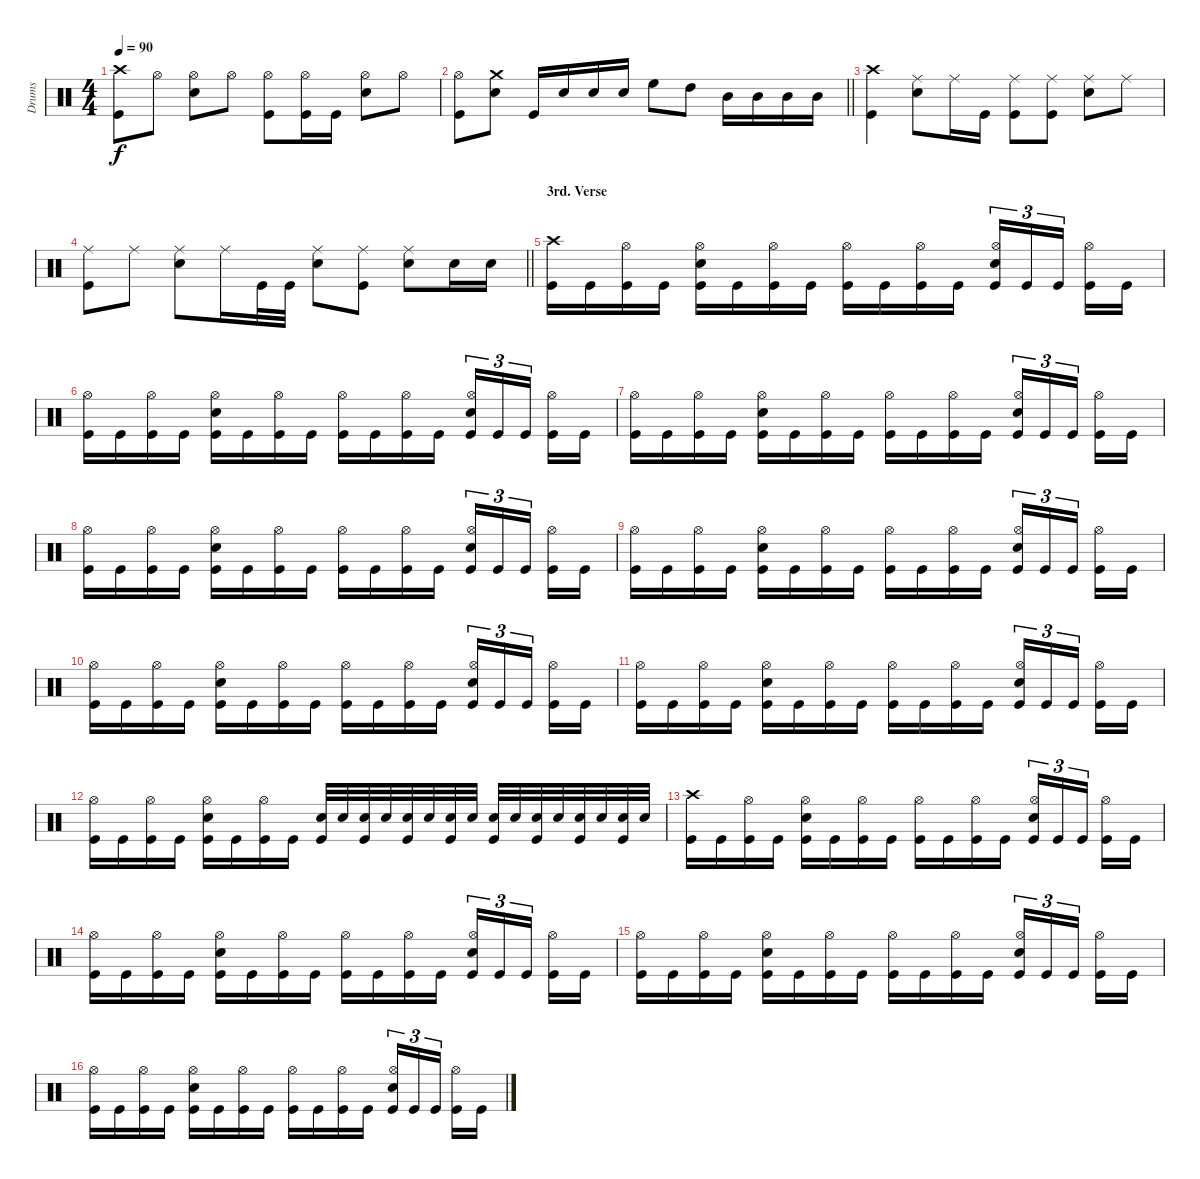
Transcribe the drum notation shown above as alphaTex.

\track ("Drums" "Drums") {instrument percussion}
\staff {score}
\articulation defaults
\ts (4 4)
\tempo 90
\clef neutral
\ks c
("Crash high (hit)" "Kick (hit)").8{dy f} "Hi-Hat (open)".8 ("Hi-Hat (open)" "Electric Snare (hit)").8 "Hi-Hat (open)".8 ("Hi-Hat (open)" "Kick (hit)").8 ("Hi-Hat (open)" "Kick (hit)").16 "Kick (hit)".16 ("Hi-Hat (open)" "Electric Snare (hit)").8 "Hi-Hat (open)".8 |
\barLineRight lightlight
("Hi-Hat (open)" "Kick (hit)").8 ("Crash medium (hit)" "Electric Snare (hit)").8 "Kick (hit)".16 "Electric Snare (hit)".16 "Electric Snare (hit)".16 "Electric Snare (hit)".16 "High Floor Tom (hit)".8 "High Tom (hit)".8 "Mid Tom (hit)".16 "Mid Tom (hit)".16 "Mid Tom (hit)".16 "Mid Tom (hit)".16 |
("Crash high (hit)" "Kick (hit)").4 ("Ride (middle)" "Electric Snare (hit)").8 "Ride (middle)".16 "Kick (hit)".16 ("Ride (middle)" "Kick (hit)").8 ("Ride (middle)" "Kick (hit)").8 ("Ride (middle)" "Electric Snare (hit)").8 "Ride (middle)".8 |
\barLineRight lightlight
("Ride (middle)" "Kick (hit)").8 "Ride (middle)".8 ("Ride (middle)" "Electric Snare (hit)").8 "Ride (middle)".16 "Kick (hit)".32 "Kick (hit)".32 ("Ride (middle)" "Electric Snare (hit)").8 ("Ride (middle)" "Kick (hit)").8 ("Ride (middle)" "Electric Snare (hit)").8 "Electric Snare (hit)".16 "Electric Snare (hit)".16 |
\section ("" "3rd. Verse")
("Crash high (hit)" "Kick (hit)").16 "Kick (hit)".16 ("Hi-Hat (open)" "Kick (hit)").16 "Kick (hit)".16 ("Hi-Hat (open)" "Electric Snare (hit)" "Kick (hit)").16 "Kick (hit)".16 ("Hi-Hat (open)" "Kick (hit)").16 "Kick (hit)".16 ("Hi-Hat (open)" "Kick (hit)").16 "Kick (hit)".16 ("Hi-Hat (open)" "Kick (hit)").16 "Kick (hit)".16 ("Hi-Hat (open)" "Electric Snare (hit)" "Kick (hit)").16{tu (3 2)} "Kick (hit)".16{tu (3 2)} "Kick (hit)".16{tu (3 2)} ("Hi-Hat (open)" "Kick (hit)").16 "Kick (hit)".16 |
("Hi-Hat (open)" "Kick (hit)").16 "Kick (hit)".16 ("Hi-Hat (open)" "Kick (hit)").16 "Kick (hit)".16 ("Hi-Hat (open)" "Electric Snare (hit)" "Kick (hit)").16 "Kick (hit)".16 ("Hi-Hat (open)" "Kick (hit)").16 "Kick (hit)".16 ("Hi-Hat (open)" "Kick (hit)").16 "Kick (hit)".16 ("Hi-Hat (open)" "Kick (hit)").16 "Kick (hit)".16 ("Hi-Hat (open)" "Electric Snare (hit)" "Kick (hit)").16{tu (3 2)} "Kick (hit)".16{tu (3 2)} "Kick (hit)".16{tu (3 2)} ("Hi-Hat (open)" "Kick (hit)").16 "Kick (hit)".16 |
("Hi-Hat (open)" "Kick (hit)").16 "Kick (hit)".16 ("Hi-Hat (open)" "Kick (hit)").16 "Kick (hit)".16 ("Hi-Hat (open)" "Electric Snare (hit)" "Kick (hit)").16 "Kick (hit)".16 ("Hi-Hat (open)" "Kick (hit)").16 "Kick (hit)".16 ("Hi-Hat (open)" "Kick (hit)").16 "Kick (hit)".16 ("Hi-Hat (open)" "Kick (hit)").16 "Kick (hit)".16 ("Hi-Hat (open)" "Electric Snare (hit)" "Kick (hit)").16{tu (3 2)} "Kick (hit)".16{tu (3 2)} "Kick (hit)".16{tu (3 2)} ("Hi-Hat (open)" "Kick (hit)").16 "Kick (hit)".16 |
("Hi-Hat (open)" "Kick (hit)").16 "Kick (hit)".16 ("Hi-Hat (open)" "Kick (hit)").16 "Kick (hit)".16 ("Hi-Hat (open)" "Electric Snare (hit)" "Kick (hit)").16 "Kick (hit)".16 ("Hi-Hat (open)" "Kick (hit)").16 "Kick (hit)".16 ("Hi-Hat (open)" "Kick (hit)").16 "Kick (hit)".16 ("Hi-Hat (open)" "Kick (hit)").16 "Kick (hit)".16 ("Hi-Hat (open)" "Electric Snare (hit)" "Kick (hit)").16{tu (3 2)} "Kick (hit)".16{tu (3 2)} "Kick (hit)".16{tu (3 2)} ("Hi-Hat (open)" "Kick (hit)").16 "Kick (hit)".16 |
("Hi-Hat (open)" "Kick (hit)").16 "Kick (hit)".16 ("Hi-Hat (open)" "Kick (hit)").16 "Kick (hit)".16 ("Hi-Hat (open)" "Electric Snare (hit)" "Kick (hit)").16 "Kick (hit)".16 ("Hi-Hat (open)" "Kick (hit)").16 "Kick (hit)".16 ("Hi-Hat (open)" "Kick (hit)").16 "Kick (hit)".16 ("Hi-Hat (open)" "Kick (hit)").16 "Kick (hit)".16 ("Hi-Hat (open)" "Electric Snare (hit)" "Kick (hit)").16{tu (3 2)} "Kick (hit)".16{tu (3 2)} "Kick (hit)".16{tu (3 2)} ("Hi-Hat (open)" "Kick (hit)").16 "Kick (hit)".16 |
("Hi-Hat (open)" "Kick (hit)").16 "Kick (hit)".16 ("Hi-Hat (open)" "Kick (hit)").16 "Kick (hit)".16 ("Hi-Hat (open)" "Electric Snare (hit)" "Kick (hit)").16 "Kick (hit)".16 ("Hi-Hat (open)" "Kick (hit)").16 "Kick (hit)".16 ("Hi-Hat (open)" "Kick (hit)").16 "Kick (hit)".16 ("Hi-Hat (open)" "Kick (hit)").16 "Kick (hit)".16 ("Hi-Hat (open)" "Electric Snare (hit)" "Kick (hit)").16{tu (3 2)} "Kick (hit)".16{tu (3 2)} "Kick (hit)".16{tu (3 2)} ("Hi-Hat (open)" "Kick (hit)").16 "Kick (hit)".16 |
("Hi-Hat (open)" "Kick (hit)").16 "Kick (hit)".16 ("Hi-Hat (open)" "Kick (hit)").16 "Kick (hit)".16 ("Hi-Hat (open)" "Electric Snare (hit)" "Kick (hit)").16 "Kick (hit)".16 ("Hi-Hat (open)" "Kick (hit)").16 "Kick (hit)".16 ("Hi-Hat (open)" "Kick (hit)").16 "Kick (hit)".16 ("Hi-Hat (open)" "Kick (hit)").16 "Kick (hit)".16 ("Hi-Hat (open)" "Electric Snare (hit)" "Kick (hit)").16{tu (3 2)} "Kick (hit)".16{tu (3 2)} "Kick (hit)".16{tu (3 2)} ("Hi-Hat (open)" "Kick (hit)").16 "Kick (hit)".16 |
("Hi-Hat (open)" "Kick (hit)").16 "Kick (hit)".16 ("Hi-Hat (open)" "Kick (hit)").16 "Kick (hit)".16 ("Hi-Hat (open)" "Electric Snare (hit)" "Kick (hit)").16 "Kick (hit)".16 ("Hi-Hat (open)" "Kick (hit)").16 "Kick (hit)".16 ("Electric Snare (hit)" "Kick (hit)").32 "Electric Snare (hit)".32 ("Electric Snare (hit)" "Kick (hit)").32 "Electric Snare (hit)".32 ("Electric Snare (hit)" "Kick (hit)").32 "Electric Snare (hit)".32 ("Electric Snare (hit)" "Kick (hit)").32 "Electric Snare (hit)".32 ("Electric Snare (hit)" "Kick (hit)").32 "Electric Snare (hit)".32 ("Electric Snare (hit)" "Kick (hit)").32 "Electric Snare (hit)".32 ("Electric Snare (hit)" "Kick (hit)").32 "Electric Snare (hit)".32 ("Electric Snare (hit)" "Kick (hit)").32 "Electric Snare (hit)".32 |
("Crash high (hit)" "Kick (hit)").16 "Kick (hit)".16 ("Hi-Hat (open)" "Kick (hit)").16 "Kick (hit)".16 ("Hi-Hat (open)" "Electric Snare (hit)" "Kick (hit)").16 "Kick (hit)".16 ("Hi-Hat (open)" "Kick (hit)").16 "Kick (hit)".16 ("Hi-Hat (open)" "Kick (hit)").16 "Kick (hit)".16 ("Hi-Hat (open)" "Kick (hit)").16 "Kick (hit)".16 ("Hi-Hat (open)" "Electric Snare (hit)" "Kick (hit)").16{tu (3 2)} "Kick (hit)".16{tu (3 2)} "Kick (hit)".16{tu (3 2)} ("Hi-Hat (open)" "Kick (hit)").16 "Kick (hit)".16 |
("Hi-Hat (open)" "Kick (hit)").16 "Kick (hit)".16 ("Hi-Hat (open)" "Kick (hit)").16 "Kick (hit)".16 ("Hi-Hat (open)" "Electric Snare (hit)" "Kick (hit)").16 "Kick (hit)".16 ("Hi-Hat (open)" "Kick (hit)").16 "Kick (hit)".16 ("Hi-Hat (open)" "Kick (hit)").16 "Kick (hit)".16 ("Hi-Hat (open)" "Kick (hit)").16 "Kick (hit)".16 ("Hi-Hat (open)" "Electric Snare (hit)" "Kick (hit)").16{tu (3 2)} "Kick (hit)".16{tu (3 2)} "Kick (hit)".16{tu (3 2)} ("Hi-Hat (open)" "Kick (hit)").16 "Kick (hit)".16 |
("Hi-Hat (open)" "Kick (hit)").16 "Kick (hit)".16 ("Hi-Hat (open)" "Kick (hit)").16 "Kick (hit)".16 ("Hi-Hat (open)" "Electric Snare (hit)" "Kick (hit)").16 "Kick (hit)".16 ("Hi-Hat (open)" "Kick (hit)").16 "Kick (hit)".16 ("Hi-Hat (open)" "Kick (hit)").16 "Kick (hit)".16 ("Hi-Hat (open)" "Kick (hit)").16 "Kick (hit)".16 ("Hi-Hat (open)" "Electric Snare (hit)" "Kick (hit)").16{tu (3 2)} "Kick (hit)".16{tu (3 2)} "Kick (hit)".16{tu (3 2)} ("Hi-Hat (open)" "Kick (hit)").16 "Kick (hit)".16 |
("Hi-Hat (open)" "Kick (hit)").16 "Kick (hit)".16 ("Hi-Hat (open)" "Kick (hit)").16 "Kick (hit)".16 ("Hi-Hat (open)" "Electric Snare (hit)" "Kick (hit)").16 "Kick (hit)".16 ("Hi-Hat (open)" "Kick (hit)").16 "Kick (hit)".16 ("Hi-Hat (open)" "Kick (hit)").16 "Kick (hit)".16 ("Hi-Hat (open)" "Kick (hit)").16 "Kick (hit)".16 ("Hi-Hat (open)" "Electric Snare (hit)" "Kick (hit)").16{tu (3 2)} "Kick (hit)".16{tu (3 2)} "Kick (hit)".16{tu (3 2)} ("Hi-Hat (open)" "Kick (hit)").16 "Kick (hit)".16
